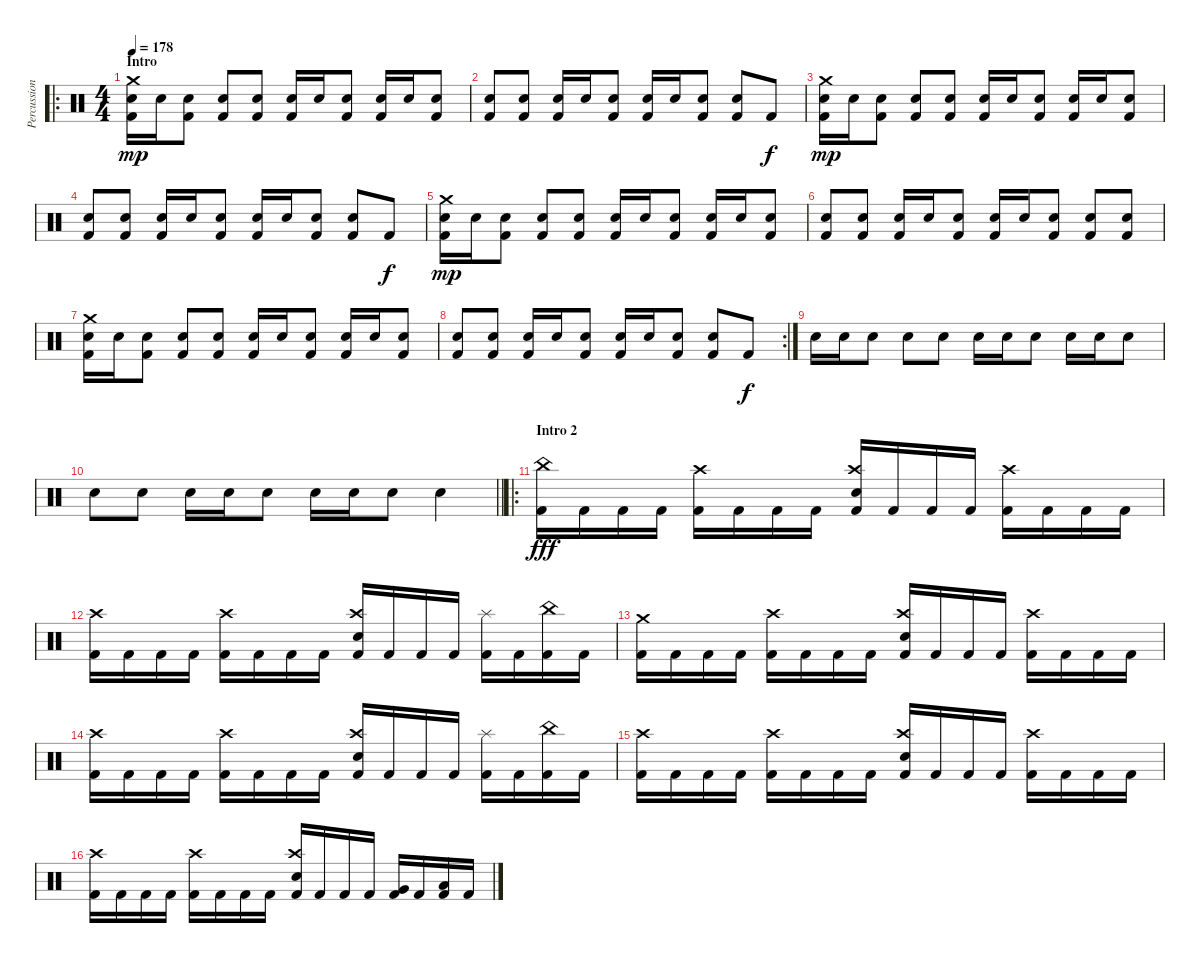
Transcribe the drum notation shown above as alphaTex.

\track ("Percussion" "Percussion") {instrument percussion}
\staff {score}
\articulation defaults
\ro
\ts (4 4)
\section ("" "Intro")
\tempo 178
\clef neutral
\ks c
("Crash medium (hit)" "Snare (hit) 2" "Kick (hit) 2").16{dy mp} "Snare (hit) 2".16 ("Snare (hit) 2" "Kick (hit) 2").8 ("Snare (hit) 2" "Kick (hit) 2").8 ("Snare (hit) 2" "Kick (hit) 2").8 ("Snare (hit) 2" "Kick (hit) 2").16 "Snare (hit) 2".16 ("Snare (hit) 2" "Kick (hit) 2").8 ("Snare (hit) 2" "Kick (hit) 2").16 "Snare (hit) 2".16 ("Snare (hit) 2" "Kick (hit) 2").8 |
("Snare (hit) 2" "Kick (hit) 2").8 ("Snare (hit) 2" "Kick (hit) 2").8 ("Snare (hit) 2" "Kick (hit) 2").16 "Snare (hit) 2".16 ("Snare (hit) 2" "Kick (hit) 2").8 ("Snare (hit) 2" "Kick (hit) 2").16 "Snare (hit) 2".16 ("Snare (hit) 2" "Kick (hit) 2").8 ("Snare (hit) 2" "Kick (hit) 2").8 "Kick (hit) 2".8{dy f} |
("Crash medium (hit)" "Snare (hit) 2" "Kick (hit) 2").16{dy mp} "Snare (hit) 2".16 ("Snare (hit) 2" "Kick (hit) 2").8 ("Snare (hit) 2" "Kick (hit) 2").8 ("Snare (hit) 2" "Kick (hit) 2").8 ("Snare (hit) 2" "Kick (hit) 2").16 "Snare (hit) 2".16 ("Snare (hit) 2" "Kick (hit) 2").8 ("Snare (hit) 2" "Kick (hit) 2").16 "Snare (hit) 2".16 ("Snare (hit) 2" "Kick (hit) 2").8 |
("Snare (hit) 2" "Kick (hit) 2").8 ("Snare (hit) 2" "Kick (hit) 2").8 ("Snare (hit) 2" "Kick (hit) 2").16 "Snare (hit) 2".16 ("Snare (hit) 2" "Kick (hit) 2").8 ("Snare (hit) 2" "Kick (hit) 2").16 "Snare (hit) 2".16 ("Snare (hit) 2" "Kick (hit) 2").8 ("Snare (hit) 2" "Kick (hit) 2").8 "Kick (hit) 2".8{dy f} |
("Crash medium (hit)" "Snare (hit) 2" "Kick (hit) 2").16{dy mp} "Snare (hit) 2".16 ("Snare (hit) 2" "Kick (hit) 2").8 ("Snare (hit) 2" "Kick (hit) 2").8 ("Snare (hit) 2" "Kick (hit) 2").8 ("Snare (hit) 2" "Kick (hit) 2").16 "Snare (hit) 2".16 ("Snare (hit) 2" "Kick (hit) 2").8 ("Snare (hit) 2" "Kick (hit) 2").16 "Snare (hit) 2".16 ("Snare (hit) 2" "Kick (hit) 2").8 |
("Snare (hit) 2" "Kick (hit) 2").8 ("Snare (hit) 2" "Kick (hit) 2").8 ("Snare (hit) 2" "Kick (hit) 2").16 "Snare (hit) 2".16 ("Snare (hit) 2" "Kick (hit) 2").8 ("Snare (hit) 2" "Kick (hit) 2").16 "Snare (hit) 2".16 ("Snare (hit) 2" "Kick (hit) 2").8 ("Snare (hit) 2" "Kick (hit) 2").8 ("Snare (hit) 2" "Kick (hit) 2").8 |
("Crash medium (hit)" "Snare (hit) 2" "Kick (hit) 2").16 "Snare (hit) 2".16 ("Snare (hit) 2" "Kick (hit) 2").8 ("Snare (hit) 2" "Kick (hit) 2").8 ("Snare (hit) 2" "Kick (hit) 2").8 ("Snare (hit) 2" "Kick (hit) 2").16 "Snare (hit) 2".16 ("Snare (hit) 2" "Kick (hit) 2").8 ("Snare (hit) 2" "Kick (hit) 2").16 "Snare (hit) 2".16 ("Snare (hit) 2" "Kick (hit) 2").8 |
\rc 2
("Snare (hit) 2" "Kick (hit) 2").8 ("Snare (hit) 2" "Kick (hit) 2").8 ("Snare (hit) 2" "Kick (hit) 2").16 "Snare (hit) 2".16 ("Snare (hit) 2" "Kick (hit) 2").8 ("Snare (hit) 2" "Kick (hit) 2").16 "Snare (hit) 2".16 ("Snare (hit) 2" "Kick (hit) 2").8 ("Snare (hit) 2" "Kick (hit) 2").8 "Kick (hit) 2".8{dy f} |
"Snare (hit) 2".16 "Snare (hit) 2".16 "Snare (hit) 2".8 "Snare (hit) 2".8 "Snare (hit) 2".8 "Snare (hit) 2".16 "Snare (hit) 2".16 "Snare (hit) 2".8 "Snare (hit) 2".16 "Snare (hit) 2".16 "Snare (hit) 2".8 |
\barLineRight lightlight "Snare (hit) 2".8 "Snare (hit) 2".8 "Snare (hit) 2".16 "Snare (hit) 2".16 "Snare (hit) 2".8 "Snare (hit) 2".16 "Snare (hit) 2".16 "Snare (hit) 2".8 "Snare (hit) 2".4
|
\ro
\section ("" "Intro 2")
("China (hit)" "Kick (hit) 2").16{dy fff} "Kick (hit) 2".16 "Kick (hit) 2".16 "Kick (hit) 2".16 ("Crash high (hit)" "Kick (hit) 2").16 "Kick (hit) 2".16 "Kick (hit) 2".16 "Kick (hit) 2".16 ("Crash high (hit)" "Electric Snare (hit)" "Kick (hit) 2").16 "Kick (hit) 2".16 "Kick (hit) 2".16 "Kick (hit) 2".16 ("Crash high (hit)" "Kick (hit) 2").16 "Kick (hit) 2".16 "Kick (hit) 2".16 "Kick (hit) 2".16 |
("Crash high (hit)" "Kick (hit) 2").16 "Kick (hit) 2".16 "Kick (hit) 2".16 "Kick (hit) 2".16 ("Crash high (hit)" "Kick (hit) 2").16 "Kick (hit) 2".16 "Kick (hit) 2".16 "Kick (hit) 2".16 ("Crash high (hit)" "Electric Snare (hit)" "Kick (hit) 2").16 "Kick (hit) 2".16 "Kick (hit) 2".16 "Kick (hit) 2".16 ("Splash (hit)" "Kick (hit) 2").16 "Kick (hit) 2".16 ("China (hit)" "Kick (hit) 2").16 "Kick (hit) 2".16 |
("Crash medium (hit)" "Kick (hit) 2").16 "Kick (hit) 2".16 "Kick (hit) 2".16 "Kick (hit) 2".16 ("Crash high (hit)" "Kick (hit) 2").16 "Kick (hit) 2".16 "Kick (hit) 2".16 "Kick (hit) 2".16 ("Crash high (hit)" "Electric Snare (hit)" "Kick (hit) 2").16 "Kick (hit) 2".16 "Kick (hit) 2".16 "Kick (hit) 2".16 ("Crash high (hit)" "Kick (hit) 2").16 "Kick (hit) 2".16 "Kick (hit) 2".16 "Kick (hit) 2".16 |
("Crash high (hit)" "Kick (hit) 2").16 "Kick (hit) 2".16 "Kick (hit) 2".16 "Kick (hit) 2".16 ("Crash high (hit)" "Kick (hit) 2").16 "Kick (hit) 2".16 "Kick (hit) 2".16 "Kick (hit) 2".16 ("Crash high (hit)" "Electric Snare (hit)" "Kick (hit) 2").16 "Kick (hit) 2".16 "Kick (hit) 2".16 "Kick (hit) 2".16 ("Splash (hit)" "Kick (hit) 2").16 "Kick (hit) 2".16 ("China (hit)" "Kick (hit) 2").16 "Kick (hit) 2".16 |
("Crash high (hit)" "Kick (hit) 2").16 "Kick (hit) 2".16 "Kick (hit) 2".16 "Kick (hit) 2".16 ("Crash high (hit)" "Kick (hit) 2").16 "Kick (hit) 2".16 "Kick (hit) 2".16 "Kick (hit) 2".16 ("Crash high (hit)" "Electric Snare (hit)" "Kick (hit) 2").16 "Kick (hit) 2".16 "Kick (hit) 2".16 "Kick (hit) 2".16 ("Crash high (hit)" "Kick (hit) 2").16 "Kick (hit) 2".16 "Kick (hit) 2".16 "Kick (hit) 2".16 |
("Crash high (hit)" "Kick (hit) 2").16 "Kick (hit) 2".16 "Kick (hit) 2".16 "Kick (hit) 2".16 ("Crash high (hit)" "Kick (hit) 2").16 "Kick (hit) 2".16 "Kick (hit) 2".16 "Kick (hit) 2".16 ("Crash high (hit)" "Electric Snare (hit)" "Kick (hit) 2").16 "Kick (hit) 2".16 "Kick (hit) 2".16 "Kick (hit) 2".16 ("Very Low Tom (hit)" "Kick (hit) 2").16 "Kick (hit) 2".16 ("Low Floor Tom (hit)" "Kick (hit) 2").16 "Kick (hit) 2".16
